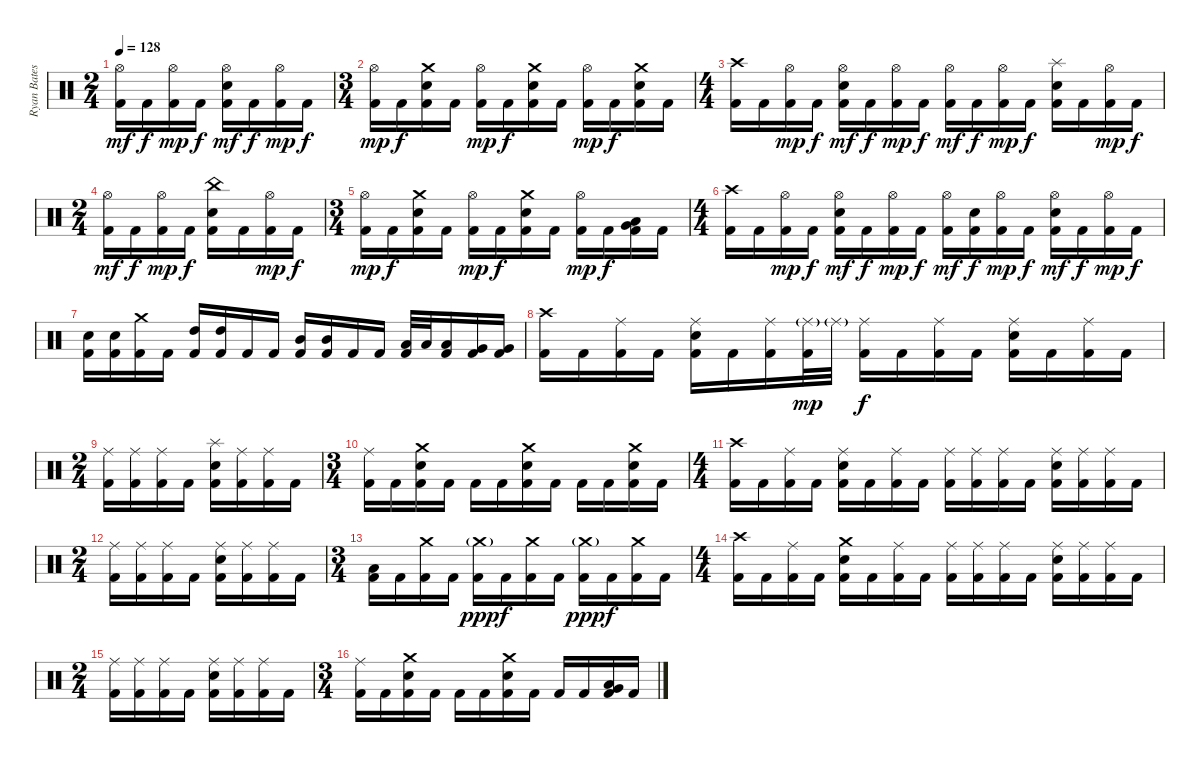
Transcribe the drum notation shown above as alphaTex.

\track ("Ryan Bates" "Ryan Bates") {instrument percussion}
\staff {score}
\articulation defaults
\ts (2 4)
\tempo 128
\clef neutral
\ks c
("Hi-Hat (open)" "Kick (hit) 2").16{dy mf} "Kick (hit) 2".16{dy f} ("Hi-Hat (open)" "Kick (hit) 2").16{dy mp} "Kick (hit) 2".16{dy f} ("Hi-Hat (open)" "Electric Snare (hit)" "Kick (hit) 2").16{dy mf} "Kick (hit) 2".16{dy f} ("Hi-Hat (open)" "Kick (hit) 2").16{dy mp} "Kick (hit) 2".16{dy f} |
\ts (3 4)
("Hi-Hat (open)" "Kick (hit) 2").16{dy mp} "Kick (hit) 2".16{dy f} ("Crash medium (hit)" "Electric Snare (hit)" "Kick (hit) 2").16 "Kick (hit) 2".16 ("Hi-Hat (open)" "Kick (hit) 2").16{dy mp} "Kick (hit) 2".16{dy f} ("Crash medium (hit)" "Electric Snare (hit)" "Kick (hit) 2").16 "Kick (hit) 2".16 ("Hi-Hat (open)" "Kick (hit) 2").16{dy mp} "Kick (hit) 2".16{dy f} ("Crash medium (hit)" "Electric Snare (hit)" "Kick (hit) 2").16 "Kick (hit) 2".16 |
\ts (4 4)
("Crash high (hit)" "Kick (hit) 2").16 "Kick (hit) 2".16 ("Hi-Hat (open)" "Kick (hit) 2").16{dy mp} "Kick (hit) 2".16{dy f} ("Hi-Hat (open)" "Electric Snare (hit)" "Kick (hit) 2").16{dy mf} "Kick (hit) 2".16{dy f} ("Hi-Hat (open)" "Kick (hit) 2").16{dy mp} "Kick (hit) 2".16{dy f} ("Hi-Hat (open)" "Kick (hit) 2").16{dy mf} "Kick (hit) 2".16{dy f} ("Hi-Hat (open)" "Kick (hit) 2").16{dy mp} "Kick (hit) 2".16{dy f} ("Splash (hit)" "Electric Snare (hit)" "Kick (hit) 2").16 "Kick (hit) 2".16 ("Hi-Hat (open)" "Kick (hit) 2").16{dy mp} "Kick (hit) 2".16{dy f} |
\ts (2 4)
("Hi-Hat (open)" "Kick (hit) 2").16{dy mf} "Kick (hit) 2".16{dy f} ("Hi-Hat (open)" "Kick (hit) 2").16{dy mp} "Kick (hit) 2".16{dy f} ("China (hit)" "Electric Snare (hit)" "Kick (hit) 2").16 "Kick (hit) 2".16 ("Hi-Hat (open)" "Kick (hit) 2").16{dy mp} "Kick (hit) 2".16{dy f} |
\ts (3 4)
("Hi-Hat (open)" "Kick (hit) 2").16{dy mp} "Kick (hit) 2".16{dy f} ("Crash medium (hit)" "Electric Snare (hit)" "Kick (hit) 2").16 "Kick (hit) 2".16 ("Hi-Hat (open)" "Kick (hit) 2").16{dy mp} "Kick (hit) 2".16{dy f} ("Crash medium (hit)" "Electric Snare (hit)" "Kick (hit) 2").16 "Kick (hit) 2".16 ("Hi-Hat (open)" "Kick (hit) 2").16{dy mp} "Kick (hit) 2".16{dy f} ("Low Tom (hit)" "Very Low Tom (hit)" "Kick (hit) 2").16 "Kick (hit) 2".16 |
\ts (4 4)
("Crash high (hit)" "Kick (hit) 2").16 "Kick (hit) 2".16 ("Hi-Hat (open)" "Kick (hit) 2").16{dy mp} "Kick (hit) 2".16{dy f} ("Hi-Hat (open)" "Electric Snare (hit)" "Kick (hit) 2").16{dy mf} "Kick (hit) 2".16{dy f} ("Hi-Hat (open)" "Kick (hit) 2").16{dy mp} "Kick (hit) 2".16{dy f} ("Hi-Hat (open)" "Kick (hit) 2").16{dy mf} ("Electric Snare (hit)" "Kick (hit) 2").16{dy f} ("Hi-Hat (open)" "Kick (hit) 2").16{dy mp} "Kick (hit) 2".16{dy f} ("Hi-Hat (open)" "Electric Snare (hit)" "Kick (hit) 2").16{dy mf} "Kick (hit) 2".16{dy f} ("Hi-Hat (open)" "Kick (hit) 2").16{dy mp} "Kick (hit) 2".16{dy f} |
("Electric Snare (hit)" "Kick (hit) 2").16 ("Electric Snare (hit)" "Kick (hit) 2").16 ("Crash medium (hit)" "Kick (hit) 2").16 "Kick (hit) 2".16 ("High Tom (hit)" "Kick (hit) 2").16 ("High Tom (hit)" "Kick (hit) 2").16 "Kick (hit) 2".16 "Kick (hit) 2".16 ("Mid Tom (hit)" "Kick (hit) 2").16 ("Mid Tom (hit)" "Kick (hit) 2").16 "Kick (hit) 2".16 "Kick (hit) 2".16 ("Low Tom (hit)" "Kick (hit) 2").32 "Low Tom (hit)".32 ("Low Tom (hit)" "Kick (hit) 2").16 ("Very Low Tom (hit)" "Kick (hit) 2").16 ("Very Low Tom (hit)" "Kick (hit) 2").16 |
("Crash high (hit)" "Kick (hit) 2").16 "Kick (hit) 2".16 ("Ride (middle)" "Kick (hit) 2").16 "Kick (hit) 2".16 ("Ride (middle)" "Electric Snare (hit)" "Kick (hit) 2").16 "Kick (hit) 2".16 ("Ride (middle)" "Kick (hit) 2").16 ("Ride (middle)"{g} "Kick (hit) 2").32{dy mp} "Ride (middle)"{g}.32 ("Ride (middle)" "Kick (hit) 2").16{dy f} "Kick (hit) 2".16 ("Ride (middle)" "Kick (hit) 2").16 "Kick (hit) 2".16 ("Ride (middle)" "Electric Snare (hit)" "Kick (hit) 2").16 "Kick (hit) 2".16 ("Ride (middle)" "Kick (hit) 2").16 "Kick (hit) 2".16 |
\ts (2 4)
("Ride (middle)" "Kick (hit) 2").16 ("Ride (middle)" "Kick (hit) 2").16 ("Ride (middle)" "Kick (hit) 2").16 "Kick (hit) 2".16 ("Splash (hit)" "Electric Snare (hit)" "Kick (hit) 2").16 ("Ride (middle)" "Kick (hit) 2").16 ("Ride (middle)" "Kick (hit) 2").16 "Kick (hit) 2".16 |
\ts (3 4)
("Ride (middle)" "Kick (hit) 2").16 "Kick (hit) 2".16 ("Crash medium (hit)" "Electric Snare (hit)" "Kick (hit) 2").16 "Kick (hit) 2".16 "Kick (hit) 2".16 "Kick (hit) 2".16 ("Crash medium (hit)" "Electric Snare (hit)" "Kick (hit) 2").16 "Kick (hit) 2".16 "Kick (hit) 2".16 "Kick (hit) 2".16 ("Crash medium (hit)" "Electric Snare (hit)" "Kick (hit) 2").16 "Kick (hit) 2".16 |
\ts (4 4)
("Crash high (hit)" "Kick (hit) 2").16 "Kick (hit) 2".16 ("Ride (middle)" "Kick (hit) 2").16 "Kick (hit) 2".16 ("Ride (middle)" "Electric Snare (hit)" "Kick (hit) 2").16 "Kick (hit) 2".16 ("Ride (middle)" "Kick (hit) 2").16 "Kick (hit) 2".16 ("Ride (middle)" "Kick (hit) 2").16 ("Ride (middle)" "Kick (hit) 2").16 ("Ride (middle)" "Kick (hit) 2").16 "Kick (hit) 2".16 ("Ride (middle)" "Electric Snare (hit)" "Kick (hit) 2").16 ("Ride (middle)" "Kick (hit) 2").16 ("Ride (middle)" "Kick (hit) 2").16 "Kick (hit) 2".16 |
\ts (2 4)
("Ride (middle)" "Kick (hit) 2").16 ("Ride (middle)" "Kick (hit) 2").16 ("Ride (middle)" "Kick (hit) 2").16 "Kick (hit) 2".16 ("Ride (middle)" "Electric Snare (hit)" "Kick (hit) 2").16 ("Ride (middle)" "Kick (hit) 2").16 ("Ride (middle)" "Kick (hit) 2").16 "Kick (hit) 2".16 |
\ts (3 4)
("Low Tom (hit)" "Kick (hit) 2").16 "Kick (hit) 2".16 ("Crash medium (hit)" "Kick (hit) 2").16 "Kick (hit) 2".16 ("Crash medium (hit)"{g} "Kick (hit) 2").16{dy ppp} "Kick (hit) 2".16{dy f} ("Crash medium (hit)" "Kick (hit) 2").16 "Kick (hit) 2".16 ("Crash medium (hit)"{g} "Kick (hit) 2").16{dy ppp} "Kick (hit) 2".16{dy f} ("Crash medium (hit)" "Kick (hit) 2").16 "Kick (hit) 2".16 |
\ts (4 4)
("Crash high (hit)" "Kick (hit) 2").16 "Kick (hit) 2".16 ("Ride (middle)" "Kick (hit) 2").16 "Kick (hit) 2".16 ("Crash medium (hit)" "Electric Snare (hit)" "Kick (hit) 2").16 "Kick (hit) 2".16 ("Ride (middle)" "Kick (hit) 2").16 "Kick (hit) 2".16 ("Ride (middle)" "Kick (hit) 2").16 ("Ride (middle)" "Kick (hit) 2").16 ("Ride (middle)" "Kick (hit) 2").16 "Kick (hit) 2".16 ("Ride (middle)" "Electric Snare (hit)" "Kick (hit) 2").16 ("Ride (middle)" "Kick (hit) 2").16 ("Ride (middle)" "Kick (hit) 2").16 "Kick (hit) 2".16 |
\ts (2 4)
("Ride (middle)" "Kick (hit) 2").16 ("Ride (middle)" "Kick (hit) 2").16 ("Ride (middle)" "Kick (hit) 2").16 "Kick (hit) 2".16 ("Ride (middle)" "Electric Snare (hit)" "Kick (hit) 2").16 ("Ride (middle)" "Kick (hit) 2").16 ("Ride (middle)" "Kick (hit) 2").16 "Kick (hit) 2".16 |
\ts (3 4)
("Ride (middle)" "Kick (hit) 2").16 "Kick (hit) 2".16 ("Crash medium (hit)" "Electric Snare (hit)" "Kick (hit) 2").16 "Kick (hit) 2".16 "Kick (hit) 2".16 "Kick (hit) 2".16 ("Crash medium (hit)" "Electric Snare (hit)" "Kick (hit) 2").16 "Kick (hit) 2".16 "Kick (hit) 2".16 "Kick (hit) 2".16 ("Low Tom (hit)" "Very Low Tom (hit)" "Kick (hit) 2").16 "Kick (hit) 2".16
